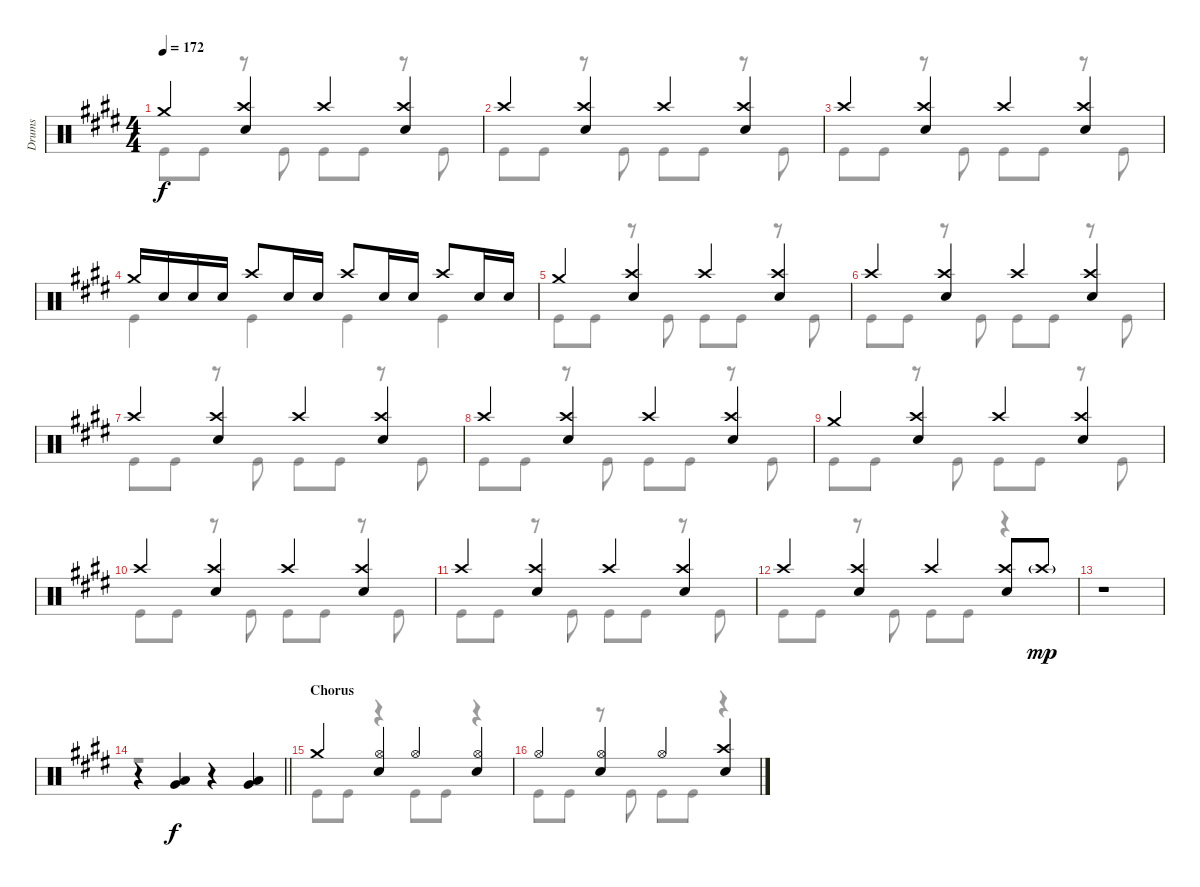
\track ("Drums" "Drums") {instrument percussion}
\staff {score}
\articulation defaults
\voice
\ts (4 4)
\tempo 172
\clef neutral
\ks e "Crash medium (hit)".4{dy f}
("Crash high (hit)" "Electric Snare (hit)").4 "Crash high (hit)".4 ("Crash high (hit)" "Electric Snare (hit)").4 |
"Crash high (hit)".4 ("Crash high (hit)" "Electric Snare (hit)").4 "Crash high (hit)".4 ("Crash high (hit)" "Electric Snare (hit)").4 |
"Crash high (hit)".4 ("Crash high (hit)" "Electric Snare (hit)").4 "Crash high (hit)".4 ("Crash high (hit)" "Electric Snare (hit)").4 |
"Crash medium (hit)".16 "Electric Snare (hit)".16 "Electric Snare (hit)".16 "Electric Snare (hit)".16 "Crash high (hit)".8 "Electric Snare (hit)".16 "Electric Snare (hit)".16 "Crash high (hit)".8 "Electric Snare (hit)".16 "Electric Snare (hit)".16 "Crash high (hit)".8 "Electric Snare (hit)".16 "Electric Snare (hit)".16 |
"Crash medium (hit)".4 ("Crash high (hit)" "Electric Snare (hit)").4 "Crash high (hit)".4 ("Crash high (hit)" "Electric Snare (hit)").4 |
"Crash high (hit)".4 ("Crash high (hit)" "Electric Snare (hit)").4 "Crash high (hit)".4 ("Crash high (hit)" "Electric Snare (hit)").4 |
"Crash high (hit)".4 ("Crash high (hit)" "Electric Snare (hit)").4 "Crash high (hit)".4 ("Crash high (hit)" "Electric Snare (hit)").4 |
"Crash high (hit)".4 ("Crash high (hit)" "Electric Snare (hit)").4 "Crash high (hit)".4 ("Crash high (hit)" "Electric Snare (hit)").4 |
"Crash medium (hit)".4 ("Crash high (hit)" "Electric Snare (hit)").4 "Crash high (hit)".4 ("Crash high (hit)" "Electric Snare (hit)").4 |
"Crash high (hit)".4 ("Crash high (hit)" "Electric Snare (hit)").4 "Crash high (hit)".4 ("Crash high (hit)" "Electric Snare (hit)").4 |
"Crash high (hit)".4 ("Crash high (hit)" "Electric Snare (hit)").4 "Crash high (hit)".4 ("Crash high (hit)" "Electric Snare (hit)").4 |
"Crash high (hit)".4 ("Crash high (hit)" "Electric Snare (hit)").4 "Crash high (hit)".4 ("Crash high (hit)" "Electric Snare (hit)").8 "Crash high (hit)"{g}.8{dy mp} |
r.1 |
\barLineRight lightlight
r.4 ("Low Tom (hit)" "Very Low Tom (hit)").4{dy f} r.4 ("Low Tom (hit)" "Very Low Tom (hit)").4 |
\section ("" "Chorus")
"Crash medium (hit)".4 ("Hi-Hat (open)" "Electric Snare (hit)").4 "Hi-Hat (open)".4 ("Hi-Hat (open)" "Electric Snare (hit)").4 |
"Hi-Hat (open)".4 ("Hi-Hat (open)" "Electric Snare (hit)").4 "Hi-Hat (open)".4 ("Crash high (hit)" "Electric Snare (hit)").4
\voice
\clef neutral
\ottava regular
\simile none
\ks e "Kick (hit)".8{dy f} "Kick (hit)".8
r.8 "Kick (hit)".8 "Kick (hit)".8 "Kick (hit)".8 r.8 "Kick (hit)".8 |
"Kick (hit)".8 "Kick (hit)".8 r.8 "Kick (hit)".8 "Kick (hit)".8 "Kick (hit)".8 r.8 "Kick (hit)".8 |
"Kick (hit)".8 "Kick (hit)".8 r.8 "Kick (hit)".8 "Kick (hit)".8 "Kick (hit)".8 r.8 "Kick (hit)".8 |
"Kick (hit)".4 "Kick (hit)".4 "Kick (hit)".4 "Kick (hit)".4 |
"Kick (hit)".8 "Kick (hit)".8 r.8 "Kick (hit)".8 "Kick (hit)".8 "Kick (hit)".8 r.8 "Kick (hit)".8 |
"Kick (hit)".8 "Kick (hit)".8 r.8 "Kick (hit)".8 "Kick (hit)".8 "Kick (hit)".8 r.8 "Kick (hit)".8 |
"Kick (hit)".8 "Kick (hit)".8 r.8 "Kick (hit)".8 "Kick (hit)".8 "Kick (hit)".8 r.8 "Kick (hit)".8 |
"Kick (hit)".8 "Kick (hit)".8 r.8 "Kick (hit)".8 "Kick (hit)".8 "Kick (hit)".8 r.8 "Kick (hit)".8 |
"Kick (hit)".8 "Kick (hit)".8 r.8 "Kick (hit)".8 "Kick (hit)".8 "Kick (hit)".8 r.8 "Kick (hit)".8 |
"Kick (hit)".8 "Kick (hit)".8 r.8 "Kick (hit)".8 "Kick (hit)".8 "Kick (hit)".8 r.8 "Kick (hit)".8 |
"Kick (hit)".8 "Kick (hit)".8 r.8 "Kick (hit)".8 "Kick (hit)".8 "Kick (hit)".8 r.8 "Kick (hit)".8 |
"Kick (hit)".8 "Kick (hit)".8 r.8 "Kick (hit)".8 "Kick (hit)".8 "Kick (hit)".8 r.4 |
r.1 |
\barLineRight lightlight
r.1 |
"Kick (hit)".8 "Kick (hit)".8 r.4 "Kick (hit)".8 "Kick (hit)".8 r.4 |
"Kick (hit)".8 "Kick (hit)".8 r.8 "Kick (hit)".8 "Kick (hit)".8 "Kick (hit)".8 r.4
